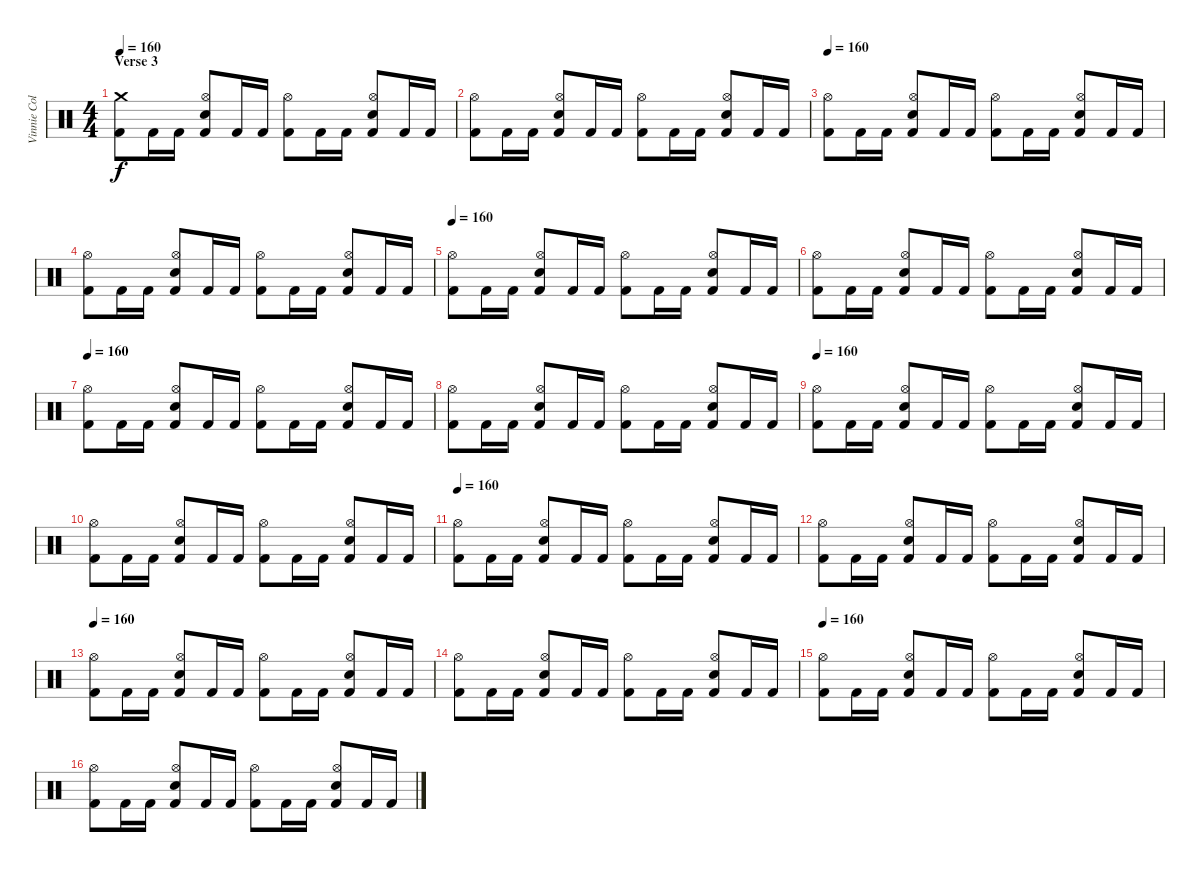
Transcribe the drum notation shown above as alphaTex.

\track ("Vinnie Colaiuta" "Vinnie Col") {instrument percussion}
\staff {score}
\articulation defaults
\ts (4 4)
\section ("" "Verse 3")
\tempo 160
\clef neutral
\ks c
("Crash medium (hit)" "Kick (hit) 2").8{dy f} "Kick (hit) 2".16 "Kick (hit) 2".16 ("Hi-Hat (open)" "Snare (hit) 2" "Kick (hit) 2").8 "Kick (hit) 2".16 "Kick (hit) 2".16 ("Hi-Hat (open)" "Kick (hit) 2").8 "Kick (hit) 2".16 "Kick (hit) 2".16 ("Hi-Hat (open)" "Snare (hit) 2" "Kick (hit) 2").8 "Kick (hit) 2".16 "Kick (hit) 2".16 |
("Hi-Hat (open)" "Kick (hit) 2").8 "Kick (hit) 2".16 "Kick (hit) 2".16 ("Hi-Hat (open)" "Snare (hit) 2" "Kick (hit) 2").8 "Kick (hit) 2".16 "Kick (hit) 2".16 ("Hi-Hat (open)" "Kick (hit) 2").8 "Kick (hit) 2".16 "Kick (hit) 2".16 ("Hi-Hat (open)" "Snare (hit) 2" "Kick (hit) 2").8 "Kick (hit) 2".16 "Kick (hit) 2".16 |
\tempo 160
("Hi-Hat (open)" "Kick (hit) 2").8 "Kick (hit) 2".16 "Kick (hit) 2".16 ("Hi-Hat (open)" "Snare (hit) 2" "Kick (hit) 2").8 "Kick (hit) 2".16 "Kick (hit) 2".16 ("Hi-Hat (open)" "Kick (hit) 2").8 "Kick (hit) 2".16 "Kick (hit) 2".16 ("Hi-Hat (open)" "Snare (hit) 2" "Kick (hit) 2").8 "Kick (hit) 2".16 "Kick (hit) 2".16 |
("Hi-Hat (open)" "Kick (hit) 2").8 "Kick (hit) 2".16 "Kick (hit) 2".16 ("Hi-Hat (open)" "Snare (hit) 2" "Kick (hit) 2").8 "Kick (hit) 2".16 "Kick (hit) 2".16 ("Hi-Hat (open)" "Kick (hit) 2").8 "Kick (hit) 2".16 "Kick (hit) 2".16 ("Hi-Hat (open)" "Snare (hit) 2" "Kick (hit) 2").8 "Kick (hit) 2".16 "Kick (hit) 2".16 |
\tempo 160
("Hi-Hat (open)" "Kick (hit) 2").8 "Kick (hit) 2".16 "Kick (hit) 2".16 ("Hi-Hat (open)" "Snare (hit) 2" "Kick (hit) 2").8 "Kick (hit) 2".16 "Kick (hit) 2".16 ("Hi-Hat (open)" "Kick (hit) 2").8 "Kick (hit) 2".16 "Kick (hit) 2".16 ("Hi-Hat (open)" "Snare (hit) 2" "Kick (hit) 2").8 "Kick (hit) 2".16 "Kick (hit) 2".16 |
("Hi-Hat (open)" "Kick (hit) 2").8 "Kick (hit) 2".16 "Kick (hit) 2".16 ("Hi-Hat (open)" "Snare (hit) 2" "Kick (hit) 2").8 "Kick (hit) 2".16 "Kick (hit) 2".16 ("Hi-Hat (open)" "Kick (hit) 2").8 "Kick (hit) 2".16 "Kick (hit) 2".16 ("Hi-Hat (open)" "Snare (hit) 2" "Kick (hit) 2").8 "Kick (hit) 2".16 "Kick (hit) 2".16 |
\tempo 160
("Hi-Hat (open)" "Kick (hit) 2").8 "Kick (hit) 2".16 "Kick (hit) 2".16 ("Hi-Hat (open)" "Snare (hit) 2" "Kick (hit) 2").8 "Kick (hit) 2".16 "Kick (hit) 2".16 ("Hi-Hat (open)" "Kick (hit) 2").8 "Kick (hit) 2".16 "Kick (hit) 2".16 ("Hi-Hat (open)" "Snare (hit) 2" "Kick (hit) 2").8 "Kick (hit) 2".16 "Kick (hit) 2".16 |
("Hi-Hat (open)" "Kick (hit) 2").8 "Kick (hit) 2".16 "Kick (hit) 2".16 ("Hi-Hat (open)" "Snare (hit) 2" "Kick (hit) 2").8 "Kick (hit) 2".16 "Kick (hit) 2".16 ("Hi-Hat (open)" "Kick (hit) 2").8 "Kick (hit) 2".16 "Kick (hit) 2".16 ("Hi-Hat (open)" "Snare (hit) 2" "Kick (hit) 2").8 "Kick (hit) 2".16 "Kick (hit) 2".16 |
\tempo 160
("Hi-Hat (open)" "Kick (hit) 2").8 "Kick (hit) 2".16 "Kick (hit) 2".16 ("Hi-Hat (open)" "Snare (hit) 2" "Kick (hit) 2").8 "Kick (hit) 2".16 "Kick (hit) 2".16 ("Hi-Hat (open)" "Kick (hit) 2").8 "Kick (hit) 2".16 "Kick (hit) 2".16 ("Hi-Hat (open)" "Snare (hit) 2" "Kick (hit) 2").8 "Kick (hit) 2".16 "Kick (hit) 2".16 |
("Hi-Hat (open)" "Kick (hit) 2").8 "Kick (hit) 2".16 "Kick (hit) 2".16 ("Hi-Hat (open)" "Snare (hit) 2" "Kick (hit) 2").8 "Kick (hit) 2".16 "Kick (hit) 2".16 ("Hi-Hat (open)" "Kick (hit) 2").8 "Kick (hit) 2".16 "Kick (hit) 2".16 ("Hi-Hat (open)" "Snare (hit) 2" "Kick (hit) 2").8 "Kick (hit) 2".16 "Kick (hit) 2".16 |
\tempo 160
("Hi-Hat (open)" "Kick (hit) 2").8 "Kick (hit) 2".16 "Kick (hit) 2".16 ("Hi-Hat (open)" "Snare (hit) 2" "Kick (hit) 2").8 "Kick (hit) 2".16 "Kick (hit) 2".16 ("Hi-Hat (open)" "Kick (hit) 2").8 "Kick (hit) 2".16 "Kick (hit) 2".16 ("Hi-Hat (open)" "Snare (hit) 2" "Kick (hit) 2").8 "Kick (hit) 2".16 "Kick (hit) 2".16 |
("Hi-Hat (open)" "Kick (hit) 2").8 "Kick (hit) 2".16 "Kick (hit) 2".16 ("Hi-Hat (open)" "Snare (hit) 2" "Kick (hit) 2").8 "Kick (hit) 2".16 "Kick (hit) 2".16 ("Hi-Hat (open)" "Kick (hit) 2").8 "Kick (hit) 2".16 "Kick (hit) 2".16 ("Hi-Hat (open)" "Snare (hit) 2" "Kick (hit) 2").8 "Kick (hit) 2".16 "Kick (hit) 2".16 |
\tempo 160
("Hi-Hat (open)" "Kick (hit) 2").8 "Kick (hit) 2".16 "Kick (hit) 2".16 ("Hi-Hat (open)" "Snare (hit) 2" "Kick (hit) 2").8 "Kick (hit) 2".16 "Kick (hit) 2".16 ("Hi-Hat (open)" "Kick (hit) 2").8 "Kick (hit) 2".16 "Kick (hit) 2".16 ("Hi-Hat (open)" "Snare (hit) 2" "Kick (hit) 2").8 "Kick (hit) 2".16 "Kick (hit) 2".16 |
("Hi-Hat (open)" "Kick (hit) 2").8 "Kick (hit) 2".16 "Kick (hit) 2".16 ("Hi-Hat (open)" "Snare (hit) 2" "Kick (hit) 2").8 "Kick (hit) 2".16 "Kick (hit) 2".16 ("Hi-Hat (open)" "Kick (hit) 2").8 "Kick (hit) 2".16 "Kick (hit) 2".16 ("Hi-Hat (open)" "Snare (hit) 2" "Kick (hit) 2").8 "Kick (hit) 2".16 "Kick (hit) 2".16 |
\tempo 160
("Hi-Hat (open)" "Kick (hit) 2").8 "Kick (hit) 2".16 "Kick (hit) 2".16 ("Hi-Hat (open)" "Snare (hit) 2" "Kick (hit) 2").8 "Kick (hit) 2".16 "Kick (hit) 2".16 ("Hi-Hat (open)" "Kick (hit) 2").8 "Kick (hit) 2".16 "Kick (hit) 2".16 ("Hi-Hat (open)" "Snare (hit) 2" "Kick (hit) 2").8 "Kick (hit) 2".16 "Kick (hit) 2".16 |
("Hi-Hat (open)" "Kick (hit) 2").8 "Kick (hit) 2".16 "Kick (hit) 2".16 ("Hi-Hat (open)" "Snare (hit) 2" "Kick (hit) 2").8 "Kick (hit) 2".16 "Kick (hit) 2".16 ("Hi-Hat (open)" "Kick (hit) 2").8 "Kick (hit) 2".16 "Kick (hit) 2".16 ("Hi-Hat (open)" "Snare (hit) 2" "Kick (hit) 2").8 "Kick (hit) 2".16 "Kick (hit) 2".16
